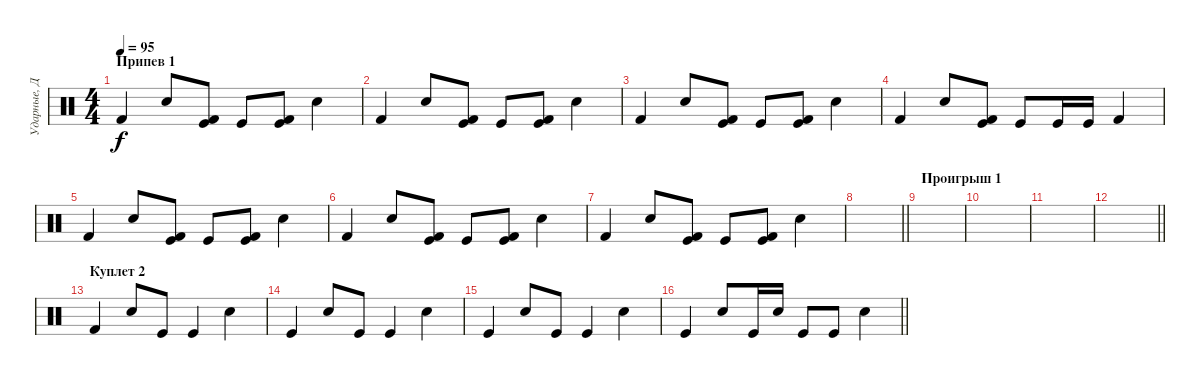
\track ("Ударные, Дэн" "Ударные, Д") {instrument percussion}
\staff {score}
\articulation defaults
\ts (4 4)
\section ("" "Припев 1")
\tempo 95
\clef neutral
\ks c "Kick (hit) 2".4{dy f} "Electric Snare (hit)".8
("Kick (hit) 2" "Kick (hit)").8 "Kick (hit)".8 ("Kick (hit) 2" "Kick (hit)").8 "Electric Snare (hit)".4 |
"Kick (hit) 2".4 "Electric Snare (hit)".8 ("Kick (hit) 2" "Kick (hit)").8 "Kick (hit)".8 ("Kick (hit) 2" "Kick (hit)").8 "Electric Snare (hit)".4 |
"Kick (hit) 2".4 "Electric Snare (hit)".8 ("Kick (hit) 2" "Kick (hit)").8 "Kick (hit)".8 ("Kick (hit) 2" "Kick (hit)").8 "Electric Snare (hit)".4 |
"Kick (hit) 2".4 "Electric Snare (hit)".8 ("Kick (hit) 2" "Kick (hit)").8 "Kick (hit)".8 "Kick (hit)".16 "Kick (hit)".16 "Kick (hit) 2".4 |
"Kick (hit) 2".4 "Electric Snare (hit)".8 ("Kick (hit) 2" "Kick (hit)").8 "Kick (hit)".8 ("Kick (hit) 2" "Kick (hit)").8 "Electric Snare (hit)".4 |
"Kick (hit) 2".4 "Electric Snare (hit)".8 ("Kick (hit) 2" "Kick (hit)").8 "Kick (hit)".8 ("Kick (hit) 2" "Kick (hit)").8 "Electric Snare (hit)".4 |
"Kick (hit) 2".4 "Electric Snare (hit)".8 ("Kick (hit) 2" "Kick (hit)").8 "Kick (hit)".8 ("Kick (hit) 2" "Kick (hit)").8 "Electric Snare (hit)".4 |
\barLineRight lightlight
|
\section ("" "Проигрыш 1")
|
|
|
\barLineRight lightlight
|
\section ("" "Куплет 2")
"Kick (hit) 2".4 "Electric Snare (hit)".8 "Kick (hit)".8 "Kick (hit)".4 "Electric Snare (hit)".4 |
"Kick (hit)".4 "Electric Snare (hit)".8 "Kick (hit)".8 "Kick (hit)".4 "Electric Snare (hit)".4 |
"Kick (hit)".4 "Electric Snare (hit)".8 "Kick (hit)".8 "Kick (hit)".4 "Electric Snare (hit)".4 |
\barLineRight lightlight "Kick (hit)".4 "Electric Snare (hit)".8 "Kick (hit)".16 "Electric Snare (hit)".16 "Kick (hit)".8 "Kick (hit)".8 "Electric Snare (hit)".4
